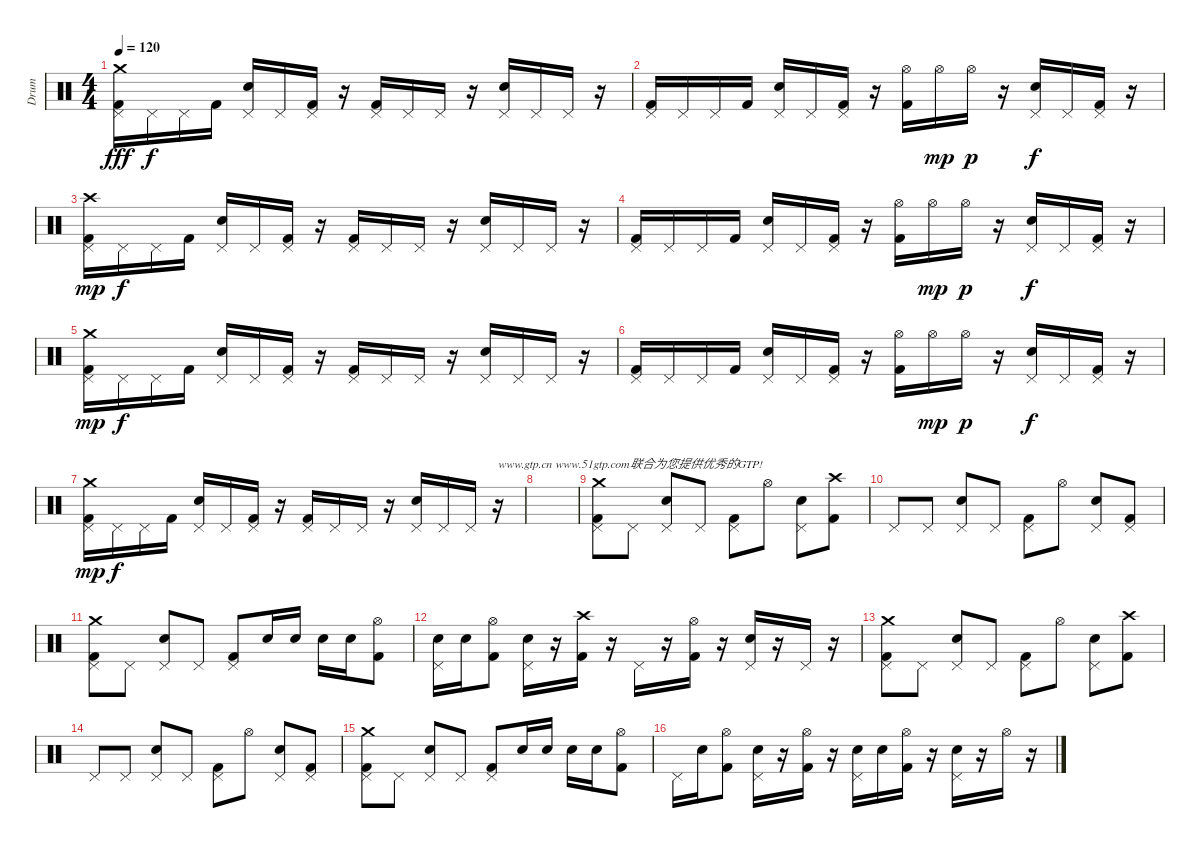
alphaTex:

\track ("Drum" "Drum") {instrument percussion}
\staff {score}
\articulation defaults
\ts (4 4)
\tempo 120
\clef neutral
\ks c
("Crash medium (hit)" "Pedal Hi-Hat (hit)" "Kick (hit) 2").16{dy fff} "Pedal Hi-Hat (hit)".16{dy f} "Pedal Hi-Hat (hit)".16 "Kick (hit) 2".16 ("Pedal Hi-Hat (hit)" "Snare (hit) 2").16 "Pedal Hi-Hat (hit)".16 ("Pedal Hi-Hat (hit)" "Kick (hit) 2").16 r.16 ("Pedal Hi-Hat (hit)" "Kick (hit) 2").16 "Pedal Hi-Hat (hit)".16 "Pedal Hi-Hat (hit)".16 r.16 ("Pedal Hi-Hat (hit)" "Snare (hit) 2").16 "Pedal Hi-Hat (hit)".16 "Pedal Hi-Hat (hit)".16 r.16 |
("Pedal Hi-Hat (hit)" "Kick (hit) 2").16 "Pedal Hi-Hat (hit)".16 "Pedal Hi-Hat (hit)".16 "Kick (hit) 2".16 ("Pedal Hi-Hat (hit)" "Snare (hit) 2").16 "Pedal Hi-Hat (hit)".16 ("Pedal Hi-Hat (hit)" "Kick (hit) 2").16 r.16 ("Hi-Hat (open)" "Kick (hit) 2").16 "Hi-Hat (open)".16{dy mp} "Hi-Hat (open)".16{dy p} r.16 ("Pedal Hi-Hat (hit)" "Snare (hit) 2").16{dy f} "Pedal Hi-Hat (hit)".16 ("Pedal Hi-Hat (hit)" "Kick (hit) 2").16 r.16 |
("Crash high (hit)" "Pedal Hi-Hat (hit)" "Kick (hit) 2").16{dy mp} "Pedal Hi-Hat (hit)".16{dy f} "Pedal Hi-Hat (hit)".16 "Kick (hit) 2".16 ("Pedal Hi-Hat (hit)" "Snare (hit) 2").16 "Pedal Hi-Hat (hit)".16 ("Pedal Hi-Hat (hit)" "Kick (hit) 2").16 r.16 ("Pedal Hi-Hat (hit)" "Kick (hit) 2").16 "Pedal Hi-Hat (hit)".16 "Pedal Hi-Hat (hit)".16 r.16 ("Pedal Hi-Hat (hit)" "Snare (hit) 2").16 "Pedal Hi-Hat (hit)".16 "Pedal Hi-Hat (hit)".16 r.16 |
("Pedal Hi-Hat (hit)" "Kick (hit) 2").16 "Pedal Hi-Hat (hit)".16 "Pedal Hi-Hat (hit)".16 "Kick (hit) 2".16 ("Pedal Hi-Hat (hit)" "Snare (hit) 2").16 "Pedal Hi-Hat (hit)".16 ("Pedal Hi-Hat (hit)" "Kick (hit) 2").16 r.16 ("Hi-Hat (open)" "Kick (hit) 2").16 "Hi-Hat (open)".16{dy mp} "Hi-Hat (open)".16{dy p} r.16 ("Pedal Hi-Hat (hit)" "Snare (hit) 2").16{dy f} "Pedal Hi-Hat (hit)".16 ("Pedal Hi-Hat (hit)" "Kick (hit) 2").16 r.16 |
("Crash medium (hit)" "Pedal Hi-Hat (hit)" "Kick (hit) 2").16{dy mp} "Pedal Hi-Hat (hit)".16{dy f} "Pedal Hi-Hat (hit)".16 "Kick (hit) 2".16 ("Pedal Hi-Hat (hit)" "Snare (hit) 2").16 "Pedal Hi-Hat (hit)".16 ("Pedal Hi-Hat (hit)" "Kick (hit) 2").16 r.16 ("Pedal Hi-Hat (hit)" "Kick (hit) 2").16 "Pedal Hi-Hat (hit)".16 "Pedal Hi-Hat (hit)".16 r.16 ("Pedal Hi-Hat (hit)" "Snare (hit) 2").16 "Pedal Hi-Hat (hit)".16 "Pedal Hi-Hat (hit)".16 r.16 |
("Pedal Hi-Hat (hit)" "Kick (hit) 2").16 "Pedal Hi-Hat (hit)".16 "Pedal Hi-Hat (hit)".16 "Kick (hit) 2".16 ("Pedal Hi-Hat (hit)" "Snare (hit) 2").16 "Pedal Hi-Hat (hit)".16 ("Pedal Hi-Hat (hit)" "Kick (hit) 2").16 r.16 ("Hi-Hat (open)" "Kick (hit) 2").16 "Hi-Hat (open)".16{dy mp} "Hi-Hat (open)".16{dy p} r.16 ("Pedal Hi-Hat (hit)" "Snare (hit) 2").16{dy f} "Pedal Hi-Hat (hit)".16 ("Pedal Hi-Hat (hit)" "Kick (hit) 2").16 r.16 |
("Crash medium (hit)" "Pedal Hi-Hat (hit)" "Kick (hit) 2").16{dy mp} "Pedal Hi-Hat (hit)".16{dy f} "Pedal Hi-Hat (hit)".16 "Kick (hit) 2".16 ("Pedal Hi-Hat (hit)" "Snare (hit) 2").16 "Pedal Hi-Hat (hit)".16 ("Pedal Hi-Hat (hit)" "Kick (hit) 2").16 r.16 ("Pedal Hi-Hat (hit)" "Kick (hit) 2").16 "Pedal Hi-Hat (hit)".16 "Pedal Hi-Hat (hit)".16 r.16 ("Pedal Hi-Hat (hit)" "Snare (hit) 2").16 "Pedal Hi-Hat (hit)".16 "Pedal Hi-Hat (hit)".16 r.16{txt "www.gtp.cn www.51gtp.com联合为您提供优秀的GTP!"} |
|
("Crash medium (hit)" "Pedal Hi-Hat (hit)" "Kick (hit) 2").8 "Pedal Hi-Hat (hit)".8 ("Pedal Hi-Hat (hit)" "Snare (hit) 2").8 "Pedal Hi-Hat (hit)".8 ("Pedal Hi-Hat (hit)" "Kick (hit) 2").8 "Hi-Hat (open)".8 ("Pedal Hi-Hat (hit)" "Snare (hit) 2").8 ("Crash high (hit)" "Kick (hit) 2").8 |
"Pedal Hi-Hat (hit)".8 "Pedal Hi-Hat (hit)".8 ("Pedal Hi-Hat (hit)" "Snare (hit) 2").8 "Pedal Hi-Hat (hit)".8 ("Pedal Hi-Hat (hit)" "Kick (hit) 2").8 "Hi-Hat (open)".8 ("Pedal Hi-Hat (hit)" "Snare (hit) 2").8 ("Pedal Hi-Hat (hit)" "Kick (hit) 2").8 |
("Crash medium (hit)" "Pedal Hi-Hat (hit)" "Kick (hit) 2").8 "Pedal Hi-Hat (hit)".8 ("Pedal Hi-Hat (hit)" "Snare (hit) 2").8 "Pedal Hi-Hat (hit)".8 ("Pedal Hi-Hat (hit)" "Kick (hit) 2").8 "Snare (hit) 2".16 "Snare (hit) 2".16 "Snare (hit) 2".16 "Snare (hit) 2".16 ("Hi-Hat (open)" "Kick (hit) 2").8 |
("Pedal Hi-Hat (hit)" "Snare (hit)").16 "Snare (hit) 2".16 ("Hi-Hat (open)" "Kick (hit) 2").8 ("Pedal Hi-Hat (hit)" "Snare (hit) 2").16 r.16 ("Crash high (hit)" "Kick (hit) 2").16 r.16 "Pedal Hi-Hat (hit)".16 r.16 ("Hi-Hat (open)" "Kick (hit) 2").16 r.16 ("Pedal Hi-Hat (hit)" "Snare (hit) 2").16 r.16 "Pedal Hi-Hat (hit)".16 r.16 |
("Crash medium (hit)" "Pedal Hi-Hat (hit)" "Kick (hit) 2").8 "Pedal Hi-Hat (hit)".8 ("Pedal Hi-Hat (hit)" "Snare (hit) 2").8 "Pedal Hi-Hat (hit)".8 ("Pedal Hi-Hat (hit)" "Kick (hit) 2").8 "Hi-Hat (open)".8 ("Pedal Hi-Hat (hit)" "Snare (hit) 2").8 ("Crash high (hit)" "Kick (hit) 2").8 |
"Pedal Hi-Hat (hit)".8 "Pedal Hi-Hat (hit)".8 ("Pedal Hi-Hat (hit)" "Snare (hit) 2").8 "Pedal Hi-Hat (hit)".8 ("Pedal Hi-Hat (hit)" "Kick (hit) 2").8 "Hi-Hat (open)".8 ("Pedal Hi-Hat (hit)" "Snare (hit) 2").8 ("Pedal Hi-Hat (hit)" "Kick (hit) 2").8 |
("Crash medium (hit)" "Pedal Hi-Hat (hit)" "Kick (hit) 2").8 "Pedal Hi-Hat (hit)".8 ("Pedal Hi-Hat (hit)" "Snare (hit) 2").8 "Pedal Hi-Hat (hit)".8 ("Pedal Hi-Hat (hit)" "Kick (hit) 2").8 "Snare (hit) 2".16 "Snare (hit) 2".16 "Snare (hit) 2".16 "Snare (hit) 2".16 ("Hi-Hat (open)" "Kick (hit) 2").8 |
"Pedal Hi-Hat (hit)".16 "Snare (hit) 2".16 ("Hi-Hat (open)" "Kick (hit) 2").8 ("Pedal Hi-Hat (hit)" "Snare (hit) 2").16 r.16 ("Hi-Hat (open)" "Kick (hit) 2").16 r.16 ("Pedal Hi-Hat (hit)" "Snare (hit) 2").16 "Snare (hit) 2".16 ("Hi-Hat (open)" "Kick (hit) 2").16 r.16 ("Pedal Hi-Hat (hit)" "Snare (hit) 2").16 r.16 "Hi-Hat (open)".16 r.16
